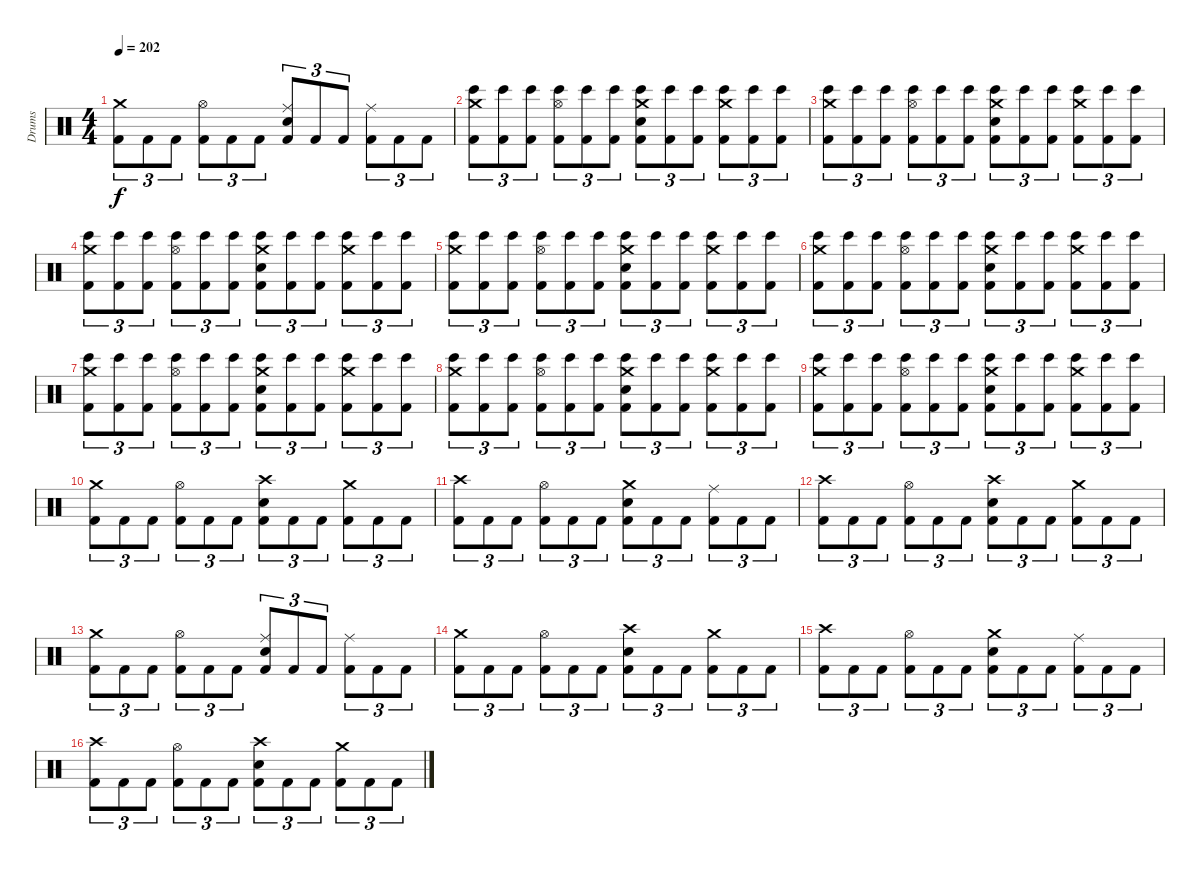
\track ("Drums" "Drums") {instrument percussion}
\staff {score}
\articulation defaults
\ts (4 4)
\tempo 202
\clef neutral
\ks c
("Crash medium (hit)" "Kick (hit) 2").8{tu (3 2) dy f} "Kick (hit) 2".8{tu (3 2)} "Kick (hit) 2".8{tu (3 2)} ("Hi-Hat (open)" "Kick (hit) 2").8{tu (3 2)} "Kick (hit) 2".8{tu (3 2)} "Kick (hit) 2".8{tu (3 2)} ("Ride (middle)" "Electric Snare (hit)" "Kick (hit) 2").8{tu (3 2)} "Kick (hit) 2".8{tu (3 2)} "Kick (hit) 2".8{tu (3 2)} ("Ride (middle)" "Kick (hit) 2").8{tu (3 2)} "Kick (hit) 2".8{tu (3 2)} "Kick (hit) 2".8{tu (3 2)} |
("Crash medium (hit)" "Bongo High (hit)" "Kick (hit) 2").8{tu (3 2)} ("Bongo High (hit)" "Kick (hit) 2").8{tu (3 2)} ("Bongo High (hit)" "Kick (hit) 2").8{tu (3 2)} ("Bongo High (hit)" "Hi-Hat (open)" "Kick (hit) 2").8{tu (3 2)} ("Bongo High (hit)" "Kick (hit) 2").8{tu (3 2)} ("Bongo High (hit)" "Kick (hit) 2").8{tu (3 2)} ("Crash medium (hit)" "Bongo High (hit)" "Electric Snare (hit)" "Kick (hit) 2").8{tu (3 2)} ("Bongo High (hit)" "Kick (hit) 2").8{tu (3 2)} ("Bongo High (hit)" "Kick (hit) 2").8{tu (3 2)} ("Crash medium (hit)" "Bongo High (hit)" "Kick (hit) 2").8{tu (3 2)} ("Bongo High (hit)" "Kick (hit) 2").8{tu (3 2)} ("Bongo High (hit)" "Kick (hit) 2").8{tu (3 2)} |
("Crash medium (hit)" "Bongo High (hit)" "Kick (hit) 2").8{tu (3 2)} ("Bongo High (hit)" "Kick (hit) 2").8{tu (3 2)} ("Bongo High (hit)" "Kick (hit) 2").8{tu (3 2)} ("Bongo High (hit)" "Hi-Hat (open)" "Kick (hit) 2").8{tu (3 2)} ("Bongo High (hit)" "Kick (hit) 2").8{tu (3 2)} ("Bongo High (hit)" "Kick (hit) 2").8{tu (3 2)} ("Crash medium (hit)" "Bongo High (hit)" "Electric Snare (hit)" "Kick (hit) 2").8{tu (3 2)} ("Bongo High (hit)" "Kick (hit) 2").8{tu (3 2)} ("Bongo High (hit)" "Kick (hit) 2").8{tu (3 2)} ("Crash medium (hit)" "Bongo High (hit)" "Kick (hit) 2").8{tu (3 2)} ("Bongo High (hit)" "Kick (hit) 2").8{tu (3 2)} ("Bongo High (hit)" "Kick (hit) 2").8{tu (3 2)} |
("Crash medium (hit)" "Bongo High (hit)" "Kick (hit) 2").8{tu (3 2)} ("Bongo High (hit)" "Kick (hit) 2").8{tu (3 2)} ("Bongo High (hit)" "Kick (hit) 2").8{tu (3 2)} ("Bongo High (hit)" "Hi-Hat (open)" "Kick (hit) 2").8{tu (3 2)} ("Bongo High (hit)" "Kick (hit) 2").8{tu (3 2)} ("Bongo High (hit)" "Kick (hit) 2").8{tu (3 2)} ("Crash medium (hit)" "Bongo High (hit)" "Electric Snare (hit)" "Kick (hit) 2").8{tu (3 2)} ("Bongo High (hit)" "Kick (hit) 2").8{tu (3 2)} ("Bongo High (hit)" "Kick (hit) 2").8{tu (3 2)} ("Crash medium (hit)" "Bongo High (hit)" "Kick (hit) 2").8{tu (3 2)} ("Bongo High (hit)" "Kick (hit) 2").8{tu (3 2)} ("Bongo High (hit)" "Kick (hit) 2").8{tu (3 2)} |
("Crash medium (hit)" "Bongo High (hit)" "Kick (hit) 2").8{tu (3 2)} ("Bongo High (hit)" "Kick (hit) 2").8{tu (3 2)} ("Bongo High (hit)" "Kick (hit) 2").8{tu (3 2)} ("Bongo High (hit)" "Hi-Hat (open)" "Kick (hit) 2").8{tu (3 2)} ("Bongo High (hit)" "Kick (hit) 2").8{tu (3 2)} ("Bongo High (hit)" "Kick (hit) 2").8{tu (3 2)} ("Crash medium (hit)" "Bongo High (hit)" "Electric Snare (hit)" "Kick (hit) 2").8{tu (3 2)} ("Bongo High (hit)" "Kick (hit) 2").8{tu (3 2)} ("Bongo High (hit)" "Kick (hit) 2").8{tu (3 2)} ("Crash medium (hit)" "Bongo High (hit)" "Kick (hit) 2").8{tu (3 2)} ("Bongo High (hit)" "Kick (hit) 2").8{tu (3 2)} ("Bongo High (hit)" "Kick (hit) 2").8{tu (3 2)} |
("Crash medium (hit)" "Bongo High (hit)" "Kick (hit) 2").8{tu (3 2)} ("Bongo High (hit)" "Kick (hit) 2").8{tu (3 2)} ("Bongo High (hit)" "Kick (hit) 2").8{tu (3 2)} ("Bongo High (hit)" "Hi-Hat (open)" "Kick (hit) 2").8{tu (3 2)} ("Bongo High (hit)" "Kick (hit) 2").8{tu (3 2)} ("Bongo High (hit)" "Kick (hit) 2").8{tu (3 2)} ("Crash medium (hit)" "Bongo High (hit)" "Electric Snare (hit)" "Kick (hit) 2").8{tu (3 2)} ("Bongo High (hit)" "Kick (hit) 2").8{tu (3 2)} ("Bongo High (hit)" "Kick (hit) 2").8{tu (3 2)} ("Crash medium (hit)" "Bongo High (hit)" "Kick (hit) 2").8{tu (3 2)} ("Bongo High (hit)" "Kick (hit) 2").8{tu (3 2)} ("Bongo High (hit)" "Kick (hit) 2").8{tu (3 2)} |
("Crash medium (hit)" "Bongo High (hit)" "Kick (hit) 2").8{tu (3 2)} ("Bongo High (hit)" "Kick (hit) 2").8{tu (3 2)} ("Bongo High (hit)" "Kick (hit) 2").8{tu (3 2)} ("Bongo High (hit)" "Hi-Hat (open)" "Kick (hit) 2").8{tu (3 2)} ("Bongo High (hit)" "Kick (hit) 2").8{tu (3 2)} ("Bongo High (hit)" "Kick (hit) 2").8{tu (3 2)} ("Crash medium (hit)" "Bongo High (hit)" "Electric Snare (hit)" "Kick (hit) 2").8{tu (3 2)} ("Bongo High (hit)" "Kick (hit) 2").8{tu (3 2)} ("Bongo High (hit)" "Kick (hit) 2").8{tu (3 2)} ("Crash medium (hit)" "Bongo High (hit)" "Kick (hit) 2").8{tu (3 2)} ("Bongo High (hit)" "Kick (hit) 2").8{tu (3 2)} ("Bongo High (hit)" "Kick (hit) 2").8{tu (3 2)} |
("Crash medium (hit)" "Bongo High (hit)" "Kick (hit) 2").8{tu (3 2)} ("Bongo High (hit)" "Kick (hit) 2").8{tu (3 2)} ("Bongo High (hit)" "Kick (hit) 2").8{tu (3 2)} ("Bongo High (hit)" "Hi-Hat (open)" "Kick (hit) 2").8{tu (3 2)} ("Bongo High (hit)" "Kick (hit) 2").8{tu (3 2)} ("Bongo High (hit)" "Kick (hit) 2").8{tu (3 2)} ("Crash medium (hit)" "Bongo High (hit)" "Electric Snare (hit)" "Kick (hit) 2").8{tu (3 2)} ("Bongo High (hit)" "Kick (hit) 2").8{tu (3 2)} ("Bongo High (hit)" "Kick (hit) 2").8{tu (3 2)} ("Crash medium (hit)" "Bongo High (hit)" "Kick (hit) 2").8{tu (3 2)} ("Bongo High (hit)" "Kick (hit) 2").8{tu (3 2)} ("Bongo High (hit)" "Kick (hit) 2").8{tu (3 2)} |
("Crash medium (hit)" "Bongo High (hit)" "Kick (hit) 2").8{tu (3 2)} ("Bongo High (hit)" "Kick (hit) 2").8{tu (3 2)} ("Bongo High (hit)" "Kick (hit) 2").8{tu (3 2)} ("Bongo High (hit)" "Hi-Hat (open)" "Kick (hit) 2").8{tu (3 2)} ("Bongo High (hit)" "Kick (hit) 2").8{tu (3 2)} ("Bongo High (hit)" "Kick (hit) 2").8{tu (3 2)} ("Crash medium (hit)" "Bongo High (hit)" "Electric Snare (hit)" "Kick (hit) 2").8{tu (3 2)} ("Bongo High (hit)" "Kick (hit) 2").8{tu (3 2)} ("Bongo High (hit)" "Kick (hit) 2").8{tu (3 2)} ("Crash medium (hit)" "Bongo High (hit)" "Kick (hit) 2").8{tu (3 2)} ("Bongo High (hit)" "Kick (hit) 2").8{tu (3 2)} ("Bongo High (hit)" "Kick (hit) 2").8{tu (3 2)} |
("Crash medium (hit)" "Kick (hit) 2").8{tu (3 2)} "Kick (hit) 2".8{tu (3 2)} "Kick (hit) 2".8{tu (3 2)} ("Hi-Hat (open)" "Kick (hit) 2").8{tu (3 2)} "Kick (hit) 2".8{tu (3 2)} "Kick (hit) 2".8{tu (3 2)} ("Crash high (hit)" "Electric Snare (hit)" "Kick (hit) 2").8{tu (3 2)} "Kick (hit) 2".8{tu (3 2)} "Kick (hit) 2".8{tu (3 2)} ("Crash medium (hit)" "Kick (hit) 2").8{tu (3 2)} "Kick (hit) 2".8{tu (3 2)} "Kick (hit) 2".8{tu (3 2)} |
("Crash high (hit)" "Kick (hit) 2").8{tu (3 2)} "Kick (hit) 2".8{tu (3 2)} "Kick (hit) 2".8{tu (3 2)} ("Hi-Hat (open)" "Kick (hit) 2").8{tu (3 2)} "Kick (hit) 2".8{tu (3 2)} "Kick (hit) 2".8{tu (3 2)} ("Crash medium (hit)" "Electric Snare (hit)" "Kick (hit) 2").8{tu (3 2)} "Kick (hit) 2".8{tu (3 2)} "Kick (hit) 2".8{tu (3 2)} ("Ride (middle)" "Kick (hit) 2").8{tu (3 2)} "Kick (hit) 2".8{tu (3 2)} "Kick (hit) 2".8{tu (3 2)} |
("Crash high (hit)" "Kick (hit) 2").8{tu (3 2)} "Kick (hit) 2".8{tu (3 2)} "Kick (hit) 2".8{tu (3 2)} ("Hi-Hat (open)" "Kick (hit) 2").8{tu (3 2)} "Kick (hit) 2".8{tu (3 2)} "Kick (hit) 2".8{tu (3 2)} ("Crash high (hit)" "Electric Snare (hit)" "Kick (hit) 2").8{tu (3 2)} "Kick (hit) 2".8{tu (3 2)} "Kick (hit) 2".8{tu (3 2)} ("Crash medium (hit)" "Kick (hit) 2").8{tu (3 2)} "Kick (hit) 2".8{tu (3 2)} "Kick (hit) 2".8{tu (3 2)} |
("Crash medium (hit)" "Kick (hit) 2").8{tu (3 2)} "Kick (hit) 2".8{tu (3 2)} "Kick (hit) 2".8{tu (3 2)} ("Hi-Hat (open)" "Kick (hit) 2").8{tu (3 2)} "Kick (hit) 2".8{tu (3 2)} "Kick (hit) 2".8{tu (3 2)} ("Ride (middle)" "Electric Snare (hit)" "Kick (hit) 2").8{tu (3 2)} "Kick (hit) 2".8{tu (3 2)} "Kick (hit) 2".8{tu (3 2)} ("Ride (middle)" "Kick (hit) 2").8{tu (3 2)} "Kick (hit) 2".8{tu (3 2)} "Kick (hit) 2".8{tu (3 2)} |
("Crash medium (hit)" "Kick (hit) 2").8{tu (3 2)} "Kick (hit) 2".8{tu (3 2)} "Kick (hit) 2".8{tu (3 2)} ("Hi-Hat (open)" "Kick (hit) 2").8{tu (3 2)} "Kick (hit) 2".8{tu (3 2)} "Kick (hit) 2".8{tu (3 2)} ("Crash high (hit)" "Electric Snare (hit)" "Kick (hit) 2").8{tu (3 2)} "Kick (hit) 2".8{tu (3 2)} "Kick (hit) 2".8{tu (3 2)} ("Crash medium (hit)" "Kick (hit) 2").8{tu (3 2)} "Kick (hit) 2".8{tu (3 2)} "Kick (hit) 2".8{tu (3 2)} |
("Crash high (hit)" "Kick (hit) 2").8{tu (3 2)} "Kick (hit) 2".8{tu (3 2)} "Kick (hit) 2".8{tu (3 2)} ("Hi-Hat (open)" "Kick (hit) 2").8{tu (3 2)} "Kick (hit) 2".8{tu (3 2)} "Kick (hit) 2".8{tu (3 2)} ("Crash medium (hit)" "Electric Snare (hit)" "Kick (hit) 2").8{tu (3 2)} "Kick (hit) 2".8{tu (3 2)} "Kick (hit) 2".8{tu (3 2)} ("Ride (middle)" "Kick (hit) 2").8{tu (3 2)} "Kick (hit) 2".8{tu (3 2)} "Kick (hit) 2".8{tu (3 2)} |
("Crash high (hit)" "Kick (hit) 2").8{tu (3 2)} "Kick (hit) 2".8{tu (3 2)} "Kick (hit) 2".8{tu (3 2)} ("Hi-Hat (open)" "Kick (hit) 2").8{tu (3 2)} "Kick (hit) 2".8{tu (3 2)} "Kick (hit) 2".8{tu (3 2)} ("Crash high (hit)" "Electric Snare (hit)" "Kick (hit) 2").8{tu (3 2)} "Kick (hit) 2".8{tu (3 2)} "Kick (hit) 2".8{tu (3 2)} ("Crash medium (hit)" "Kick (hit) 2").8{tu (3 2)} "Kick (hit) 2".8{tu (3 2)} "Kick (hit) 2".8{tu (3 2)}
